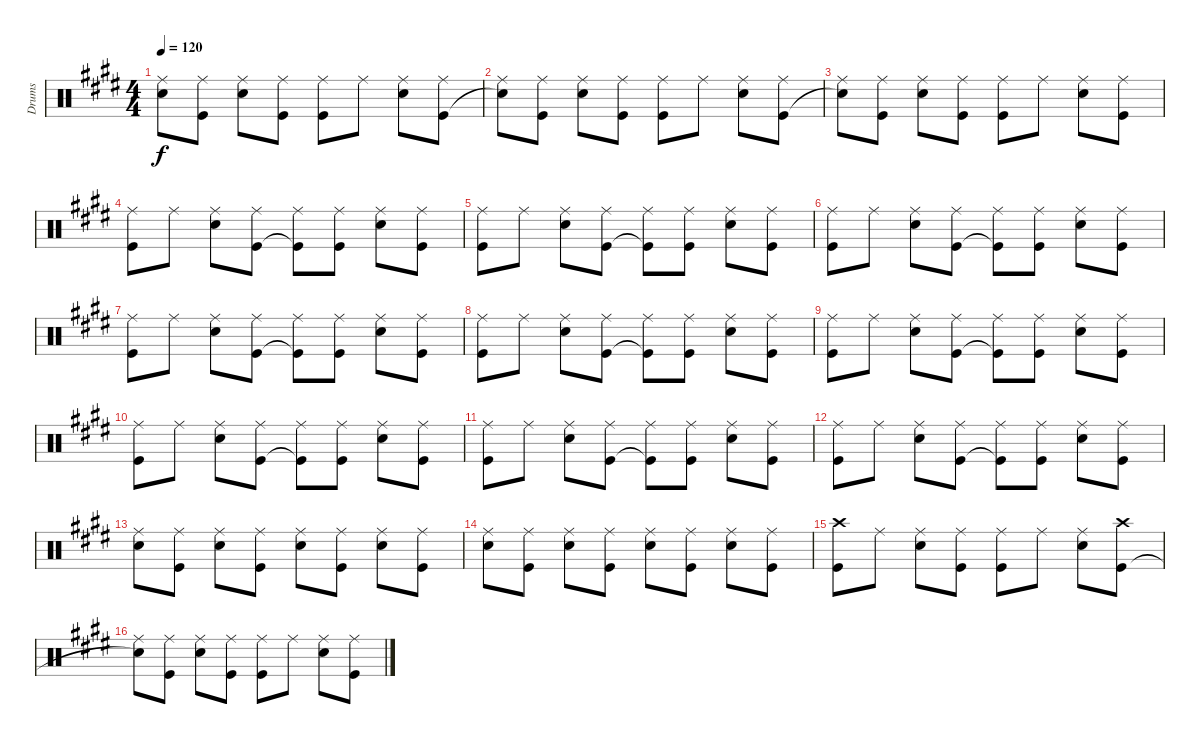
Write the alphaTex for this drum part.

\track ("Drums" "Drums") {instrument percussion}
\staff {score}
\articulation defaults
\ts (4 4)
\tempo 120
\clef neutral
\ks e
("Ride (middle)" "Snare (hit)"{t}).8{dy f} ("Ride (middle)" "Kick (hit)").8 ("Ride (middle)" "Snare (hit) 2").8 ("Ride (middle)" "Kick (hit)").8 ("Ride (middle)" "Kick (hit)").8 "Ride (middle)".8 ("Ride (middle)" "Snare (hit) 2").8 ("Ride (middle)" "Kick (hit)").8 |
("Ride (middle)" "Snare (hit)"{t}).8 ("Ride (middle)" "Kick (hit)").8 ("Ride (middle)" "Snare (hit) 2").8 ("Ride (middle)" "Kick (hit)").8 ("Ride (middle)" "Kick (hit)").8 "Ride (middle)".8 ("Ride (middle)" "Snare (hit) 2").8 ("Ride (middle)" "Kick (hit)").8 |
("Ride (middle)" "Snare (hit)"{t}).8 ("Ride (middle)" "Kick (hit)").8 ("Ride (middle)" "Snare (hit) 2").8 ("Ride (middle)" "Kick (hit)").8 ("Ride (middle)" "Kick (hit)").8 "Ride (middle)".8 ("Ride (middle)" "Snare (hit) 2").8 ("Ride (middle)" "Kick (hit)").8 |
("Ride (middle)" "Kick (hit)").8 "Ride (middle)".8 ("Ride (middle)" "Snare (hit) 2").8 ("Ride (middle)" "Kick (hit)").8 ("Ride (middle)" "Kick (hit)"{t}).8 ("Ride (middle)" "Kick (hit)").8 ("Ride (middle)" "Snare (hit) 2").8 ("Ride (middle)" "Kick (hit)").8 |
("Ride (middle)" "Kick (hit)").8 "Ride (middle)".8 ("Ride (middle)" "Snare (hit) 2").8 ("Ride (middle)" "Kick (hit)").8 ("Ride (middle)" "Kick (hit)"{t}).8 ("Ride (middle)" "Kick (hit)").8 ("Ride (middle)" "Snare (hit) 2").8 ("Ride (middle)" "Kick (hit)").8 |
("Ride (middle)" "Kick (hit)").8 "Ride (middle)".8 ("Ride (middle)" "Snare (hit) 2").8 ("Ride (middle)" "Kick (hit)").8 ("Ride (middle)" "Kick (hit)"{t}).8 ("Ride (middle)" "Kick (hit)").8 ("Ride (middle)" "Snare (hit) 2").8 ("Ride (middle)" "Kick (hit)").8 |
("Ride (middle)" "Kick (hit)").8 "Ride (middle)".8 ("Ride (middle)" "Snare (hit) 2").8 ("Ride (middle)" "Kick (hit)").8 ("Ride (middle)" "Kick (hit)"{t}).8 ("Ride (middle)" "Kick (hit)").8 ("Ride (middle)" "Snare (hit) 2").8 ("Ride (middle)" "Kick (hit)").8 |
("Ride (middle)" "Kick (hit)").8 "Ride (middle)".8 ("Ride (middle)" "Snare (hit) 2").8 ("Ride (middle)" "Kick (hit)").8 ("Ride (middle)" "Kick (hit)"{t}).8 ("Ride (middle)" "Kick (hit)").8 ("Ride (middle)" "Snare (hit) 2").8 ("Ride (middle)" "Kick (hit)").8 |
("Ride (middle)" "Kick (hit)").8 "Ride (middle)".8 ("Ride (middle)" "Snare (hit) 2").8 ("Ride (middle)" "Kick (hit)").8 ("Ride (middle)" "Kick (hit)"{t}).8 ("Ride (middle)" "Kick (hit)").8 ("Ride (middle)" "Snare (hit) 2").8 ("Ride (middle)" "Kick (hit)").8 |
("Ride (middle)" "Kick (hit)").8 "Ride (middle)".8 ("Ride (middle)" "Snare (hit) 2").8 ("Ride (middle)" "Kick (hit)").8 ("Ride (middle)" "Kick (hit)"{t}).8 ("Ride (middle)" "Kick (hit)").8 ("Ride (middle)" "Snare (hit) 2").8 ("Ride (middle)" "Kick (hit)").8 |
("Ride (middle)" "Kick (hit)").8 "Ride (middle)".8 ("Ride (middle)" "Snare (hit) 2").8 ("Ride (middle)" "Kick (hit)").8 ("Ride (middle)" "Kick (hit)"{t}).8 ("Ride (middle)" "Kick (hit)").8 ("Ride (middle)" "Snare (hit) 2").8 ("Ride (middle)" "Kick (hit)").8 |
("Ride (middle)" "Kick (hit)").8 "Ride (middle)".8 ("Ride (middle)" "Snare (hit) 2").8 ("Ride (middle)" "Kick (hit)").8 ("Ride (middle)" "Kick (hit)"{t}).8 ("Ride (middle)" "Kick (hit)").8 ("Ride (middle)" "Snare (hit) 2").8 ("Ride (middle)" "Kick (hit)").8 |
("Ride (middle)" "Snare (hit) 2").8 ("Ride (middle)" "Kick (hit)").8 ("Ride (middle)" "Snare (hit) 2").8 ("Ride (middle)" "Kick (hit)").8 ("Ride (middle)" "Snare (hit) 2").8 ("Ride (middle)" "Kick (hit)").8 ("Ride (middle)" "Snare (hit) 2").8 ("Ride (middle)" "Kick (hit)").8 |
("Ride (middle)" "Snare (hit) 2").8 ("Ride (middle)" "Kick (hit)").8 ("Ride (middle)" "Snare (hit) 2").8 ("Ride (middle)" "Kick (hit)").8 ("Ride (middle)" "Snare (hit) 2").8 ("Ride (middle)" "Kick (hit)").8 ("Ride (middle)" "Snare (hit) 2").8 ("Ride (middle)" "Kick (hit)").8 |
("Crash high (hit)" "Kick (hit)").8 "Ride (middle)".8 ("Ride (middle)" "Snare (hit) 2").8 ("Ride (middle)" "Kick (hit)").8 ("Ride (middle)" "Kick (hit)").8 "Ride (middle)".8 ("Ride (middle)" "Snare (hit) 2").8 ("Crash high (hit)" "Kick (hit)").8 |
("Ride (middle)" "Snare (hit)"{t}).8 ("Ride (middle)" "Kick (hit)").8 ("Ride (middle)" "Snare (hit) 2").8 ("Ride (middle)" "Kick (hit)").8 ("Ride (middle)" "Kick (hit)").8 "Ride (middle)".8 ("Ride (middle)" "Snare (hit) 2").8 ("Ride (middle)" "Kick (hit)").8
